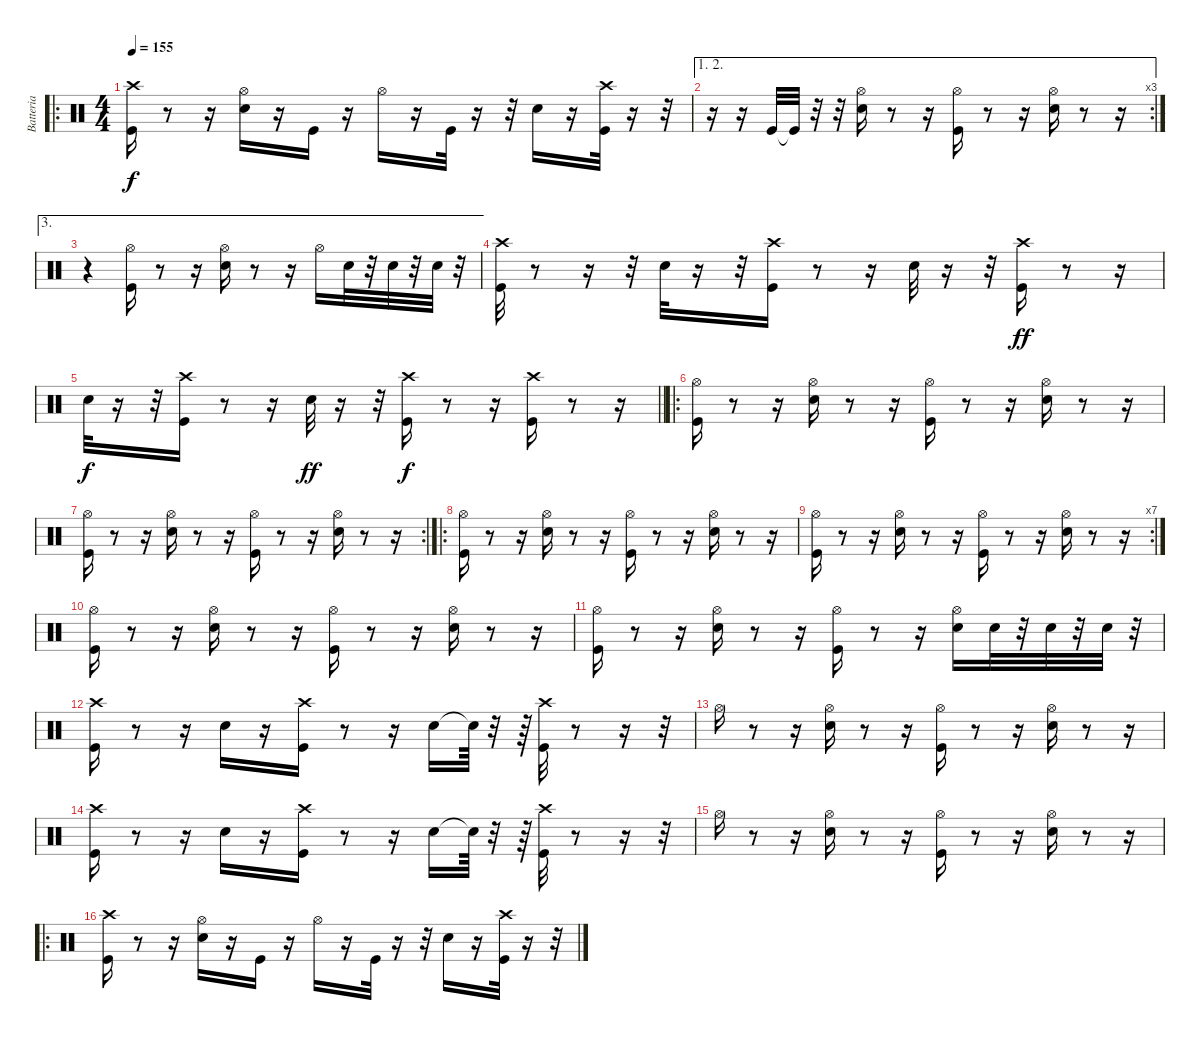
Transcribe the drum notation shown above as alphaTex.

\track ("Batteria" "Batteria") {instrument percussion bank 20}
\staff {score}
\articulation defaults
\ro
\ts (4 4)
\tempo 155
\clef neutral
\ks c
("Kick (hit)" "Crash high (hit)").16{dy f} r.8 r.16 ("Hi-Hat (open)" "Snare (hit) 2").16 r.16 "Kick (hit)".16 r.16 "Hi-Hat (open)".16 r.16 "Kick (hit)".32 r.16 r.32 "Snare (hit) 2".16 r.16 ("Kick (hit)" "Crash high (hit)").32 r.16 r.32 |
\ae (1 2)
\rc 3
r.16 r.16 "Kick (hit)".32 "Kick (hit)"{t}.32 r.32 r.32 ("Hi-Hat (open)" "Snare (hit) 2").16 r.8 r.16 ("Hi-Hat (open)" "Kick (hit)").16 r.8 r.16 ("Hi-Hat (open)" "Snare (hit) 2").16 r.8 r.16 |
\ae 3
r.4 ("Hi-Hat (open)" "Kick (hit)").16 r.8 r.16 ("Hi-Hat (open)" "Snare (hit) 2").16 r.8 r.16 "Hi-Hat (open)".16 "Snare (hit) 2".32 r.32 "Snare (hit) 2".32 r.32 "Snare (hit) 2".32 r.32 |
("Kick (hit)" "Crash high (hit)").32 r.8 r.16 r.32 "Snare (hit) 2".32 r.16 r.32 ("Kick (hit)" "Crash high (hit)").16 r.8 r.16 "Snare (hit) 2".32 r.16 r.32 ("Kick (hit)" "Crash high (hit)").16{dy ff} r.8 r.16 |
\barLineRight lightlight "Snare (hit) 2".32{dy f}
r.16 r.32 ("Kick (hit)" "Crash high (hit)").16 r.8 r.16 "Snare (hit) 2".32{dy ff} r.16 r.32 ("Kick (hit)" "Crash high (hit)").16{dy f} r.8 r.16 ("Kick (hit)" "Crash high (hit)").16 r.8 r.16 |
\ro
("Hi-Hat (open)" "Kick (hit)").16 r.8 r.16 ("Hi-Hat (open)" "Snare (hit) 2").16 r.8 r.16 ("Kick (hit)" "Hi-Hat (open)").16 r.8 r.16 ("Snare (hit) 2" "Hi-Hat (open)").16 r.8 r.16 |
\rc 2
("Hi-Hat (open)" "Kick (hit)").16 r.8 r.16 ("Hi-Hat (open)" "Snare (hit) 2").16 r.8 r.16 ("Kick (hit)" "Hi-Hat (open)").16 r.8 r.16 ("Snare (hit) 2" "Hi-Hat (open)").16 r.8 r.16 |
\ro
("Hi-Hat (open)" "Kick (hit)").16 r.8 r.16 ("Hi-Hat (open)" "Snare (hit) 2").16 r.8 r.16 ("Kick (hit)" "Hi-Hat (open)").16 r.8 r.16 ("Snare (hit) 2" "Hi-Hat (open)").16 r.8 r.16 |
\rc 7
("Hi-Hat (open)" "Kick (hit)").16 r.8 r.16 ("Hi-Hat (open)" "Snare (hit) 2").16 r.8 r.16 ("Kick (hit)" "Hi-Hat (open)").16 r.8 r.16 ("Snare (hit) 2" "Hi-Hat (open)").16 r.8 r.16 |
("Hi-Hat (open)" "Kick (hit)").16 r.8 r.16 ("Hi-Hat (open)" "Snare (hit) 2").16 r.8 r.16 ("Kick (hit)" "Hi-Hat (open)").16 r.8 r.16 ("Snare (hit) 2" "Hi-Hat (open)").16 r.8 r.16 |
("Kick (hit)" "Hi-Hat (open)").16 r.8 r.16 ("Snare (hit) 2" "Hi-Hat (open)").16 r.8 r.16 ("Kick (hit)" "Hi-Hat (open)").16 r.8 r.16 ("Snare (hit) 2" "Hi-Hat (open)").16 "Snare (hit) 2".32 r.32 "Electric Snare (hit)".32 r.32 "Electric Snare (hit)".32 r.32 |
("Crash high (hit)" "Kick (hit)").16 r.8 r.16 "Snare (hit) 2".16 r.16 ("Kick (hit)" "Crash high (hit)").16 r.8 r.16 "Snare (hit) 2".16 "Snare (hit)"{t}.64 r.32 r.64 ("Kick (hit)" "Crash high (hit)").32 r.8 r.16 r.32 |
"Hi-Hat (open)".16 r.8 r.16 ("Hi-Hat (open)" "Snare (hit) 2").16 r.8 r.16 ("Hi-Hat (open)" "Kick (hit)").16 r.8 r.16 ("Hi-Hat (open)" "Snare (hit) 2").16 r.8 r.16 |
("Kick (hit)" "Crash high (hit)").16 r.8 r.16 "Snare (hit) 2".16 r.16 ("Kick (hit)" "Crash high (hit)").16 r.8 r.16 "Snare (hit) 2".16 "Snare (hit)"{t}.64 r.32 r.64 ("Kick (hit)" "Crash high (hit)").32 r.8 r.16 r.32 |
"Hi-Hat (open)".16 r.8 r.16 ("Hi-Hat (open)" "Snare (hit) 2").16 r.8 r.16 ("Hi-Hat (open)" "Kick (hit)").16 r.8 r.16 ("Hi-Hat (open)" "Snare (hit) 2").16 r.8 r.16 |
\ro
("Kick (hit)" "Crash high (hit)").16 r.8 r.16 ("Hi-Hat (open)" "Snare (hit) 2").16 r.16 "Kick (hit)".16 r.16 "Hi-Hat (open)".16 r.16 "Kick (hit)".32 r.16 r.32 "Snare (hit) 2".16 r.16 ("Kick (hit)" "Crash high (hit)").32 r.16 r.32
